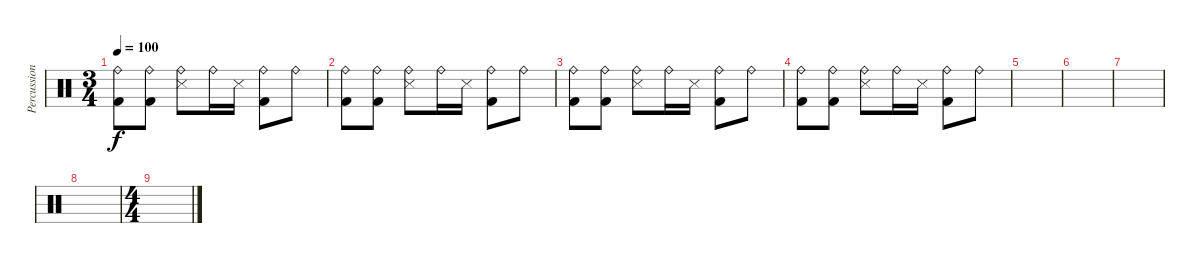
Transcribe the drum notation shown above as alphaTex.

\track ("Percussion" "Percussion") {instrument percussion}
\staff {score}
\articulation defaults
\ts (3 4)
\tempo 100
\clef neutral
\ks c
("Ride (bell)" "Kick (hit) 2").8{dy f} ("Ride (bell)" "Kick (hit) 2").8 ("Ride (bell)" "Snare (side stick) 3").8 "Ride (bell)".16 "Snare (side stick) 3".16 ("Ride (bell)" "Kick (hit) 2").8 "Ride (bell)".8 |
("Ride (bell)" "Kick (hit) 2").8 ("Ride (bell)" "Kick (hit) 2").8 ("Ride (bell)" "Snare (side stick) 3").8 "Ride (bell)".16 "Snare (side stick) 3".16 ("Ride (bell)" "Kick (hit) 2").8 "Ride (bell)".8 |
("Ride (bell)" "Kick (hit) 2").8 ("Ride (bell)" "Kick (hit) 2").8 ("Ride (bell)" "Snare (side stick) 3").8 "Ride (bell)".16 "Snare (side stick) 3".16 ("Ride (bell)" "Kick (hit) 2").8 "Ride (bell)".8 |
("Ride (bell)" "Kick (hit) 2").8 ("Ride (bell)" "Kick (hit) 2").8 ("Ride (bell)" "Snare (side stick) 3").8 "Ride (bell)".16 "Snare (side stick) 3".16 ("Ride (bell)" "Kick (hit) 2").8 "Ride (bell)".8 |
|
|
|
|
\ts (4 4)
